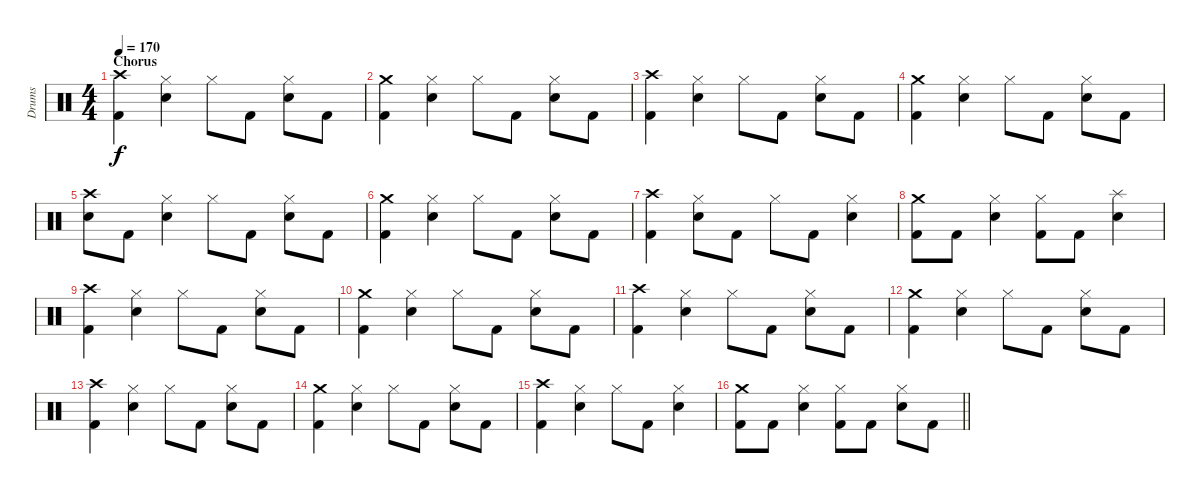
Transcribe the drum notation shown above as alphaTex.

\track ("Drums" "Drums") {instrument percussion}
\staff {score}
\articulation defaults
\ts (4 4)
\section ("" "Chorus")
\tempo 170
\clef neutral
\ks c
("Kick (hit) 2" "Crash high (hit)").4{dy f} ("Hi-Hat (closed)" "Electric Snare (hit)").4 "Hi-Hat (closed)".8 "Kick (hit) 2".8 ("Hi-Hat (closed)" "Electric Snare (hit)").8 "Kick (hit) 2".8 |
("Kick (hit) 2" "Crash medium (hit)").4 ("Hi-Hat (closed)" "Electric Snare (hit)").4 "Hi-Hat (closed)".8 "Kick (hit) 2".8 ("Hi-Hat (closed)" "Electric Snare (hit)").8 "Kick (hit) 2".8 |
("Kick (hit) 2" "Crash high (hit)").4 ("Hi-Hat (closed)" "Electric Snare (hit)").4 "Hi-Hat (closed)".8 "Kick (hit) 2".8 ("Hi-Hat (closed)" "Electric Snare (hit)").8 "Kick (hit) 2".8 |
("Kick (hit) 2" "Crash medium (hit)").4 ("Hi-Hat (closed)" "Electric Snare (hit)").4 "Hi-Hat (closed)".8 "Kick (hit) 2".8 ("Hi-Hat (closed)" "Electric Snare (hit)").8 "Kick (hit) 2".8 |
("Crash high (hit)" "Electric Snare (hit)").8 "Kick (hit) 2".8 ("Hi-Hat (closed)" "Electric Snare (hit)").4 "Hi-Hat (closed)".8 "Kick (hit) 2".8 ("Hi-Hat (closed)" "Electric Snare (hit)").8 "Kick (hit) 2".8 |
("Kick (hit) 2" "Crash medium (hit)").4 ("Hi-Hat (closed)" "Electric Snare (hit)").4 "Hi-Hat (closed)".8 "Kick (hit) 2".8 ("Hi-Hat (closed)" "Electric Snare (hit)").8 "Kick (hit) 2".8 |
("Kick (hit) 2" "Crash high (hit)").4 ("Hi-Hat (closed)" "Electric Snare (hit)").8 "Kick (hit) 2".8 "Hi-Hat (closed)".8 "Kick (hit) 2".8 ("Hi-Hat (closed)" "Electric Snare (hit)").4 |
("Kick (hit) 2" "Crash medium (hit)").8 "Kick (hit) 2".8 ("Hi-Hat (closed)" "Electric Snare (hit)").4 ("Kick (hit) 2" "Hi-Hat (closed)").8 "Kick (hit) 2".8 ("Splash (hit)" "Electric Snare (hit)").4 |
("Kick (hit) 2" "Crash high (hit)").4 ("Hi-Hat (closed)" "Electric Snare (hit)").4 "Hi-Hat (closed)".8 "Kick (hit) 2".8 ("Hi-Hat (closed)" "Electric Snare (hit)").8 "Kick (hit) 2".8 |
("Kick (hit) 2" "Crash medium (hit)").4 ("Hi-Hat (closed)" "Electric Snare (hit)").4 "Hi-Hat (closed)".8 "Kick (hit) 2".8 ("Hi-Hat (closed)" "Electric Snare (hit)").8 "Kick (hit) 2".8 |
("Kick (hit) 2" "Crash high (hit)").4 ("Hi-Hat (closed)" "Electric Snare (hit)").4 "Hi-Hat (closed)".8 "Kick (hit) 2".8 ("Hi-Hat (closed)" "Electric Snare (hit)").8 "Kick (hit) 2".8 |
("Kick (hit) 2" "Crash medium (hit)").4 ("Hi-Hat (closed)" "Electric Snare (hit)").4 "Hi-Hat (closed)".8 "Kick (hit) 2".8 ("Hi-Hat (closed)" "Electric Snare (hit)").8 "Kick (hit) 2".8 |
("Kick (hit) 2" "Crash high (hit)").4 ("Hi-Hat (closed)" "Electric Snare (hit)").4 "Hi-Hat (closed)".8 "Kick (hit) 2".8 ("Hi-Hat (closed)" "Electric Snare (hit)").8 "Kick (hit) 2".8 |
("Kick (hit) 2" "Crash medium (hit)").4 ("Hi-Hat (closed)" "Electric Snare (hit)").4 "Hi-Hat (closed)".8 "Kick (hit) 2".8 ("Hi-Hat (closed)" "Electric Snare (hit)").8 "Kick (hit) 2".8 |
("Kick (hit) 2" "Crash high (hit)").4 ("Hi-Hat (closed)" "Electric Snare (hit)").4 "Hi-Hat (closed)".8 "Kick (hit) 2".8 ("Hi-Hat (closed)" "Electric Snare (hit)").4 |
\barLineRight lightlight
("Kick (hit) 2" "Crash medium (hit)").8 "Kick (hit) 2".8 ("Hi-Hat (closed)" "Electric Snare (hit)").4 ("Kick (hit) 2" "Hi-Hat (closed)").8 "Kick (hit) 2".8 ("Hi-Hat (closed)" "Electric Snare (hit)").8 "Kick (hit) 2".8
